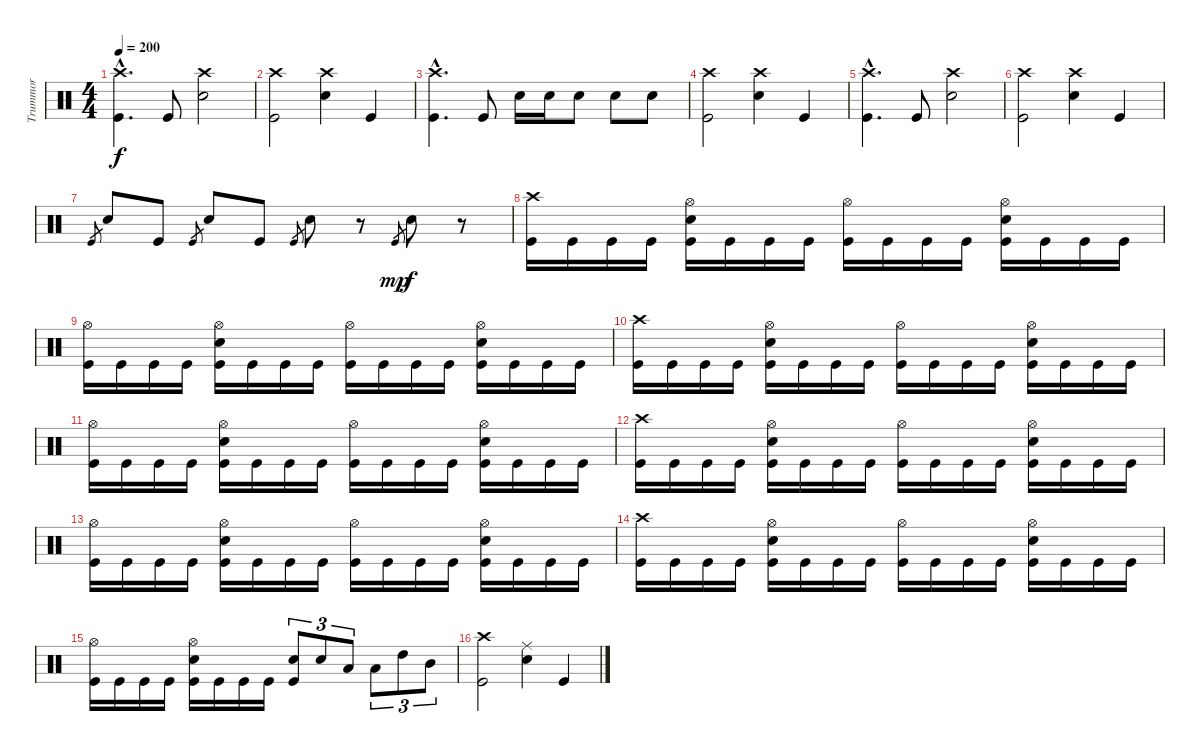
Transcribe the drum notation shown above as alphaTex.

\track ("Trummor" "Trummor") {instrument percussion}
\staff {score}
\articulation defaults
\ts (4 4)
\tempo 200
\clef neutral
\ks c
("Crash high (hit)"{hac} "Kick (hit)"{hac}).4{d dy f} "Kick (hit)".8 ("Crash high (hit)" "Electric Snare (hit)").2 |
("Crash high (hit)" "Kick (hit)").2 ("Crash high (hit)" "Electric Snare (hit)").4 "Kick (hit)".4 |
("Crash high (hit)"{hac} "Kick (hit)"{hac}).4{d} "Kick (hit)".8 "Electric Snare (hit)".16 "Electric Snare (hit)".16 "Electric Snare (hit)".8 "Electric Snare (hit)".8 "Electric Snare (hit)".8 |
("Crash high (hit)" "Kick (hit)").2 ("Crash high (hit)" "Electric Snare (hit)").4 "Kick (hit)".4 |
("Crash high (hit)"{hac} "Kick (hit)"{hac}).4{d} "Kick (hit)".8 ("Crash high (hit)" "Electric Snare (hit)").2 |
("Crash high (hit)" "Kick (hit)").2 ("Crash high (hit)" "Electric Snare (hit)").4 "Kick (hit)".4 |
"Kick (hit)"{sl}.8{gr} "Electric Snare (hit)".8 "Kick (hit)".8 "Kick (hit)"{sl}.8{gr} "Electric Snare (hit)".8 "Kick (hit)".8 "Kick (hit)"{sl}.8{gr} "Electric Snare (hit)".8 r.8 "Kick (hit)"{sl}.8{gr dy mp} "Electric Snare (hit)".8{dy f} r.8 |
("Crash high (hit)" "Kick (hit)").16 "Kick (hit)".16 "Kick (hit)".16 "Kick (hit)".16 ("Hi-Hat (open)" "Electric Snare (hit)" "Kick (hit)").16 "Kick (hit)".16 "Kick (hit)".16 "Kick (hit)".16 ("Hi-Hat (open)" "Kick (hit)").16 "Kick (hit)".16 "Kick (hit)".16 "Kick (hit)".16 ("Hi-Hat (open)" "Electric Snare (hit)" "Kick (hit)").16 "Kick (hit)".16 "Kick (hit)".16 "Kick (hit)".16 |
("Hi-Hat (open)" "Kick (hit)").16 "Kick (hit)".16 "Kick (hit)".16 "Kick (hit)".16 ("Hi-Hat (open)" "Electric Snare (hit)" "Kick (hit)").16 "Kick (hit)".16 "Kick (hit)".16 "Kick (hit)".16 ("Hi-Hat (open)" "Kick (hit)").16 "Kick (hit)".16 "Kick (hit)".16 "Kick (hit)".16 ("Hi-Hat (open)" "Electric Snare (hit)" "Kick (hit)").16 "Kick (hit)".16 "Kick (hit)".16 "Kick (hit)".16 |
("Crash high (hit)" "Kick (hit)").16 "Kick (hit)".16 "Kick (hit)".16 "Kick (hit)".16 ("Hi-Hat (open)" "Electric Snare (hit)" "Kick (hit)").16 "Kick (hit)".16 "Kick (hit)".16 "Kick (hit)".16 ("Hi-Hat (open)" "Kick (hit)").16 "Kick (hit)".16 "Kick (hit)".16 "Kick (hit)".16 ("Hi-Hat (open)" "Electric Snare (hit)" "Kick (hit)").16 "Kick (hit)".16 "Kick (hit)".16 "Kick (hit)".16 |
("Hi-Hat (open)" "Kick (hit)").16 "Kick (hit)".16 "Kick (hit)".16 "Kick (hit)".16 ("Hi-Hat (open)" "Electric Snare (hit)" "Kick (hit)").16 "Kick (hit)".16 "Kick (hit)".16 "Kick (hit)".16 ("Hi-Hat (open)" "Kick (hit)").16 "Kick (hit)".16 "Kick (hit)".16 "Kick (hit)".16 ("Hi-Hat (open)" "Electric Snare (hit)" "Kick (hit)").16 "Kick (hit)".16 "Kick (hit)".16 "Kick (hit)".16 |
("Crash high (hit)" "Kick (hit)").16 "Kick (hit)".16 "Kick (hit)".16 "Kick (hit)".16 ("Hi-Hat (open)" "Electric Snare (hit)" "Kick (hit)").16 "Kick (hit)".16 "Kick (hit)".16 "Kick (hit)".16 ("Hi-Hat (open)" "Kick (hit)").16 "Kick (hit)".16 "Kick (hit)".16 "Kick (hit)".16 ("Hi-Hat (open)" "Electric Snare (hit)" "Kick (hit)").16 "Kick (hit)".16 "Kick (hit)".16 "Kick (hit)".16 |
("Hi-Hat (open)" "Kick (hit)").16 "Kick (hit)".16 "Kick (hit)".16 "Kick (hit)".16 ("Hi-Hat (open)" "Electric Snare (hit)" "Kick (hit)").16 "Kick (hit)".16 "Kick (hit)".16 "Kick (hit)".16 ("Hi-Hat (open)" "Kick (hit)").16 "Kick (hit)".16 "Kick (hit)".16 "Kick (hit)".16 ("Hi-Hat (open)" "Electric Snare (hit)" "Kick (hit)").16 "Kick (hit)".16 "Kick (hit)".16 "Kick (hit)".16 |
("Crash high (hit)" "Kick (hit)").16 "Kick (hit)".16 "Kick (hit)".16 "Kick (hit)".16 ("Hi-Hat (open)" "Electric Snare (hit)" "Kick (hit)").16 "Kick (hit)".16 "Kick (hit)".16 "Kick (hit)".16 ("Hi-Hat (open)" "Kick (hit)").16 "Kick (hit)".16 "Kick (hit)".16 "Kick (hit)".16 ("Hi-Hat (open)" "Electric Snare (hit)" "Kick (hit)").16 "Kick (hit)".16 "Kick (hit)".16 "Kick (hit)".16 |
("Hi-Hat (open)" "Kick (hit)").16 "Kick (hit)".16 "Kick (hit)".16 "Kick (hit)".16 ("Hi-Hat (open)" "Electric Snare (hit)" "Kick (hit)").16 "Kick (hit)".16 "Kick (hit)".16 "Kick (hit)".16 ("Electric Snare (hit)" "Kick (hit)").8{tu (3 2)} "Electric Snare (hit)".8{tu (3 2)} "Low Floor Tom (hit)".8{tu (3 2)} "Low Floor Tom (hit)".8{tu (3 2)} "High Tom (hit)".8{tu (3 2)} "Mid Tom (hit)".8{tu (3 2)} |
("Crash high (hit)" "Kick (hit)").2 ("Ride (middle)" "Electric Snare (hit)").4 "Kick (hit)".4
